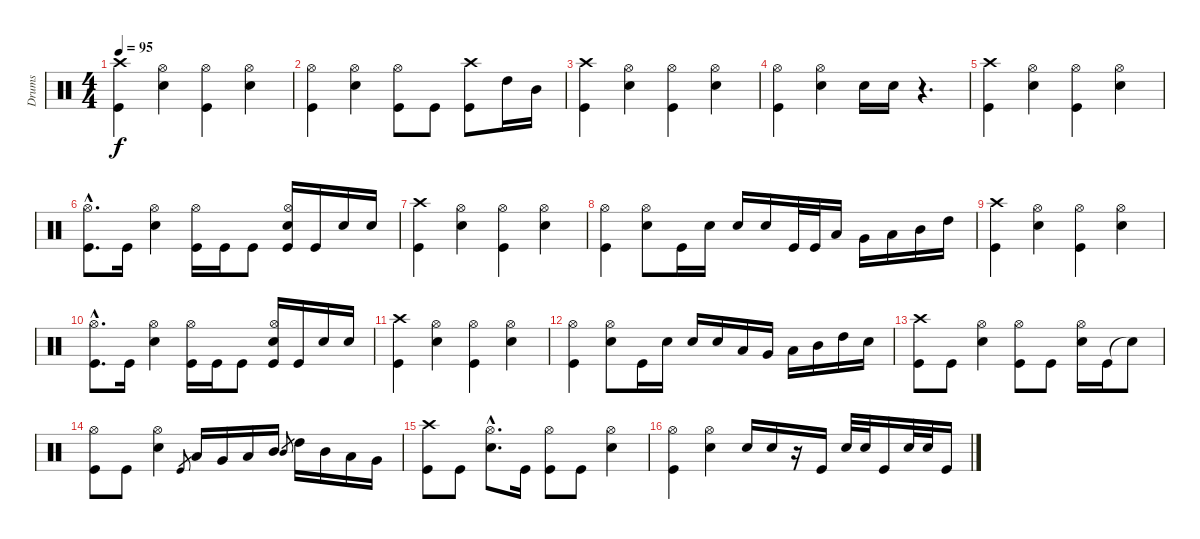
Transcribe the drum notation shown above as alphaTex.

\track ("Drums" "Drums") {instrument percussion}
\staff {score}
\articulation defaults
\ts (4 4)
\tempo 95
\clef neutral
\ks c
("Crash high (hit)" "Kick (hit)").4{dy f} ("Hi-Hat (open)" "Electric Snare (hit)").4 ("Hi-Hat (open)" "Kick (hit)").4 ("Hi-Hat (open)" "Electric Snare (hit)").4 |
("Hi-Hat (open)" "Kick (hit)").4 ("Hi-Hat (open)" "Electric Snare (hit)").4 ("Hi-Hat (open)" "Kick (hit)").8 "Kick (hit)".8 ("Crash high (hit)" "Kick (hit)").8 "High Tom (hit)".16 "Mid Tom (hit)".16 |
("Crash high (hit)" "Kick (hit)").4 ("Hi-Hat (open)" "Electric Snare (hit)").4 ("Hi-Hat (open)" "Kick (hit)").4 ("Hi-Hat (open)" "Electric Snare (hit)").4 |
("Hi-Hat (open)" "Kick (hit)").4 ("Hi-Hat (open)" "Electric Snare (hit)").4 "Electric Snare (hit)".16 "Electric Snare (hit)".16 r.4{d} |
("Crash high (hit)" "Kick (hit)").4 ("Hi-Hat (open)" "Electric Snare (hit)").4 ("Hi-Hat (open)" "Kick (hit)").4 ("Hi-Hat (open)" "Electric Snare (hit)").4 |
("Hi-Hat (open)"{hac} "Kick (hit)"{hac}).8{d} "Kick (hit)".16 ("Hi-Hat (open)" "Electric Snare (hit)").4 ("Hi-Hat (open)" "Kick (hit)").16 "Kick (hit)".16 "Kick (hit)".8 ("Hi-Hat (open)" "Electric Snare (hit)" "Kick (hit)").16 "Kick (hit)".16 "Electric Snare (hit)".16 "Electric Snare (hit)".16 |
("Crash high (hit)" "Kick (hit)").4 ("Hi-Hat (open)" "Electric Snare (hit)").4 ("Hi-Hat (open)" "Kick (hit)").4 ("Hi-Hat (open)" "Electric Snare (hit)").4 |
("Hi-Hat (open)" "Kick (hit)").4 ("Hi-Hat (open)" "Electric Snare (hit)").8 "Kick (hit)".16 "Electric Snare (hit)".16 "Electric Snare (hit)".16 "Electric Snare (hit)".16 "Kick (hit)".32 "Kick (hit)".32 "Low Floor Tom (hit)".16 "Very Low Tom (hit)".16 "Low Tom (hit)".16 "Mid Tom (hit)".16 "High Tom (hit)".16 |
("Crash high (hit)" "Kick (hit)").4 ("Hi-Hat (open)" "Electric Snare (hit)").4 ("Hi-Hat (open)" "Kick (hit)").4 ("Hi-Hat (open)" "Electric Snare (hit)").4 |
("Hi-Hat (open)"{hac} "Kick (hit)"{hac}).8{d} "Kick (hit)".16 ("Hi-Hat (open)" "Electric Snare (hit)").4 ("Hi-Hat (open)" "Kick (hit)").16 "Kick (hit)".16 "Kick (hit)".8 ("Hi-Hat (open)" "Electric Snare (hit)" "Kick (hit)").16 "Kick (hit)".16 "Electric Snare (hit)".16 "Electric Snare (hit)".16 |
("Crash high (hit)" "Kick (hit)").4 ("Hi-Hat (open)" "Electric Snare (hit)").4 ("Hi-Hat (open)" "Kick (hit)").4 ("Hi-Hat (open)" "Electric Snare (hit)").4 |
("Hi-Hat (open)" "Kick (hit)").4 ("Hi-Hat (open)" "Electric Snare (hit)").8 "Kick (hit)".16 "Electric Snare (hit)".16 "Electric Snare (hit)".16 "Electric Snare (hit)".16 "Low Floor Tom (hit)".16 "Very Low Tom (hit)".16 "Low Tom (hit)".16 "Mid Tom (hit)".16 "High Tom (hit)".16 "Electric Snare (hit)".16 |
("Crash high (hit)" "Kick (hit)").8 "Kick (hit)".8 ("Hi-Hat (open)" "Electric Snare (hit)").4 ("Hi-Hat (open)" "Kick (hit)").8 "Kick (hit)".8 ("Hi-Hat (open)" "Electric Snare (hit)").16 "Kick (hit)".16 "Snare (hit)"{t}.8 |
("Hi-Hat (open)" "Kick (hit)").8 "Kick (hit)".8 ("Hi-Hat (open)" "Electric Snare (hit)").4 "Kick (hit)"{sl}.8{gr} "Low Floor Tom (hit)".16 "Very Low Tom (hit)".16 "Low Tom (hit)".16 "Mid Tom (hit)".16 "Mid Tom (hit)"{sl}.8{gr} "High Tom (hit)".16 "Mid Tom (hit)".16 "Low Tom (hit)".16 "Very Low Tom (hit)".16 |
("Crash high (hit)" "Kick (hit)").8 "Kick (hit)".8 ("Hi-Hat (open)"{hac} "Electric Snare (hit)"{hac}).8{d} "Kick (hit)".16 ("Hi-Hat (open)" "Kick (hit)").8 "Kick (hit)".8 ("Hi-Hat (open)" "Electric Snare (hit)").4 |
("Hi-Hat (open)" "Kick (hit)").4 ("Hi-Hat (open)" "Electric Snare (hit)").4 "Electric Snare (hit)".16 "Electric Snare (hit)".16 r.16 "Kick (hit)".16 "Electric Snare (hit)".32 "Electric Snare (hit)".32 "Kick (hit)".16 "Electric Snare (hit)".32 "Electric Snare (hit)".32 "Kick (hit)".16
